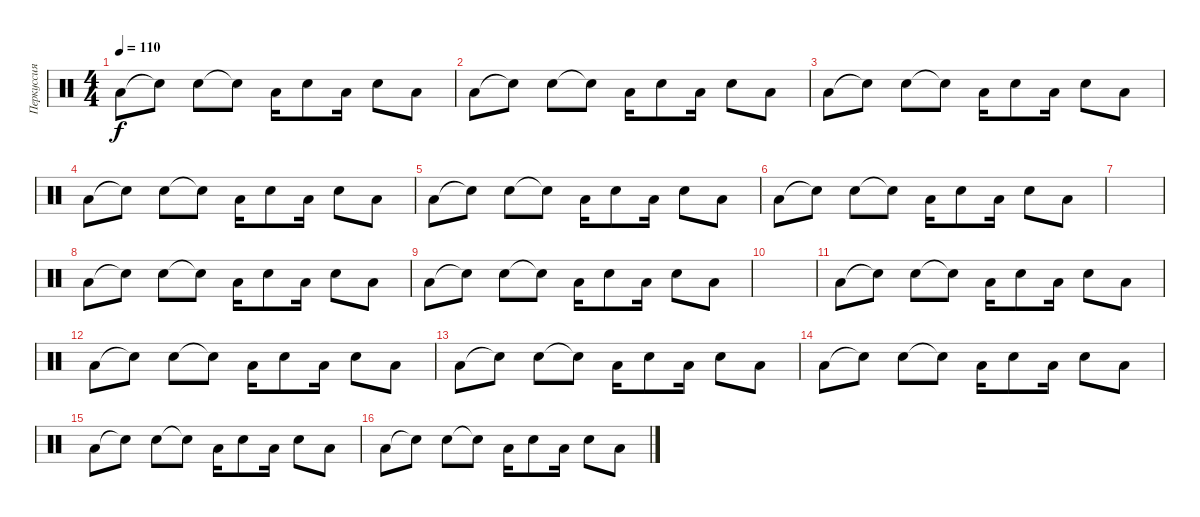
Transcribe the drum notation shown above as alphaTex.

\track ("Перкуссия" "Перкуссия") {instrument percussion}
\staff {score}
\articulation defaults
\ts (4 4)
\tempo 110
\clef neutral
\ks c "Low Floor Tom (hit)".8{dy f} "Snare (hit)"{t}.8 "Electric Snare (hit)".8 "Snare (hit)"{t}.8 "Low Floor Tom (hit)".16 "Electric Snare (hit)".8 "Low Floor Tom (hit)".16 "Electric Snare (hit)".8 "Low Floor Tom (hit)".8
|
"Low Floor Tom (hit)".8 "Snare (hit)"{t}.8 "Electric Snare (hit)".8 "Snare (hit)"{t}.8 "Low Floor Tom (hit)".16 "Electric Snare (hit)".8 "Low Floor Tom (hit)".16 "Electric Snare (hit)".8 "Low Floor Tom (hit)".8 |
"Low Floor Tom (hit)".8 "Snare (hit)"{t}.8 "Electric Snare (hit)".8 "Snare (hit)"{t}.8 "Low Floor Tom (hit)".16 "Electric Snare (hit)".8 "Low Floor Tom (hit)".16 "Electric Snare (hit)".8 "Low Floor Tom (hit)".8 |
"Low Floor Tom (hit)".8 "Snare (hit)"{t}.8 "Electric Snare (hit)".8 "Snare (hit)"{t}.8 "Low Floor Tom (hit)".16 "Electric Snare (hit)".8 "Low Floor Tom (hit)".16 "Electric Snare (hit)".8 "Low Floor Tom (hit)".8 |
"Low Floor Tom (hit)".8 "Snare (hit)"{t}.8 "Electric Snare (hit)".8 "Snare (hit)"{t}.8 "Low Floor Tom (hit)".16 "Electric Snare (hit)".8 "Low Floor Tom (hit)".16 "Electric Snare (hit)".8 "Low Floor Tom (hit)".8 |
"Low Floor Tom (hit)".8 "Snare (hit)"{t}.8 "Electric Snare (hit)".8 "Snare (hit)"{t}.8 "Low Floor Tom (hit)".16 "Electric Snare (hit)".8 "Low Floor Tom (hit)".16 "Electric Snare (hit)".8 "Low Floor Tom (hit)".8 |
|
"Low Floor Tom (hit)".8 "Snare (hit)"{t}.8 "Electric Snare (hit)".8 "Snare (hit)"{t}.8 "Low Floor Tom (hit)".16 "Electric Snare (hit)".8 "Low Floor Tom (hit)".16 "Electric Snare (hit)".8 "Low Floor Tom (hit)".8 |
"Low Floor Tom (hit)".8 "Snare (hit)"{t}.8 "Electric Snare (hit)".8 "Snare (hit)"{t}.8 "Low Floor Tom (hit)".16 "Electric Snare (hit)".8 "Low Floor Tom (hit)".16 "Electric Snare (hit)".8 "Low Floor Tom (hit)".8 |
|
"Low Floor Tom (hit)".8 "Snare (hit)"{t}.8 "Electric Snare (hit)".8 "Snare (hit)"{t}.8 "Low Floor Tom (hit)".16 "Electric Snare (hit)".8 "Low Floor Tom (hit)".16 "Electric Snare (hit)".8 "Low Floor Tom (hit)".8 |
"Low Floor Tom (hit)".8 "Snare (hit)"{t}.8 "Electric Snare (hit)".8 "Snare (hit)"{t}.8 "Low Floor Tom (hit)".16 "Electric Snare (hit)".8 "Low Floor Tom (hit)".16 "Electric Snare (hit)".8 "Low Floor Tom (hit)".8 |
"Low Floor Tom (hit)".8 "Snare (hit)"{t}.8 "Electric Snare (hit)".8 "Snare (hit)"{t}.8 "Low Floor Tom (hit)".16 "Electric Snare (hit)".8 "Low Floor Tom (hit)".16 "Electric Snare (hit)".8 "Low Floor Tom (hit)".8 |
"Low Floor Tom (hit)".8 "Snare (hit)"{t}.8 "Electric Snare (hit)".8 "Snare (hit)"{t}.8 "Low Floor Tom (hit)".16 "Electric Snare (hit)".8 "Low Floor Tom (hit)".16 "Electric Snare (hit)".8 "Low Floor Tom (hit)".8 |
"Low Floor Tom (hit)".8 "Snare (hit)"{t}.8 "Electric Snare (hit)".8 "Snare (hit)"{t}.8 "Low Floor Tom (hit)".16 "Electric Snare (hit)".8 "Low Floor Tom (hit)".16 "Electric Snare (hit)".8 "Low Floor Tom (hit)".8 |
"Low Floor Tom (hit)".8 "Snare (hit)"{t}.8 "Electric Snare (hit)".8 "Snare (hit)"{t}.8 "Low Floor Tom (hit)".16 "Electric Snare (hit)".8 "Low Floor Tom (hit)".16 "Electric Snare (hit)".8 "Low Floor Tom (hit)".8
